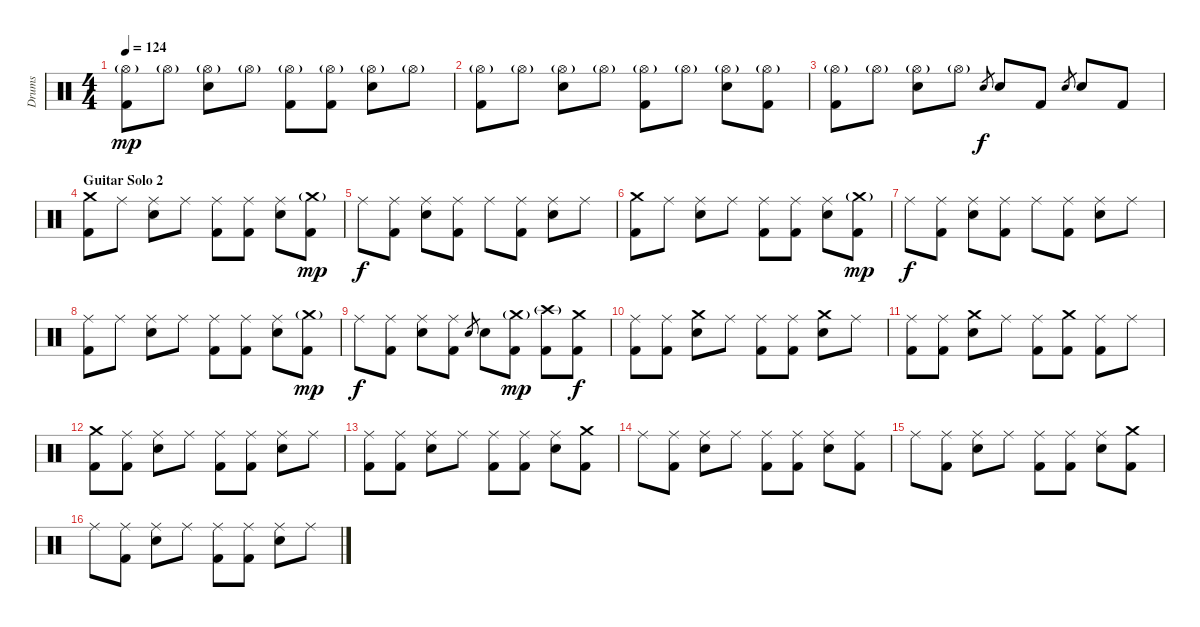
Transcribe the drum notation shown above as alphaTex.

\track ("Drums" "Drums") {instrument percussion}
\staff {score}
\articulation defaults
\ts (4 4)
\tempo 124
\clef neutral
\ks c
("Hi-Hat (open)"{g} "Kick (hit) 2").8{dy mp} "Hi-Hat (open)"{g}.8 ("Hi-Hat (open)"{g} "Snare (hit) 2").8 "Hi-Hat (open)"{g}.8 ("Hi-Hat (open)"{g} "Kick (hit) 2").8 ("Hi-Hat (open)"{g} "Kick (hit) 2").8 ("Hi-Hat (open)"{g} "Snare (hit) 2").8 "Hi-Hat (open)"{g}.8 |
("Hi-Hat (open)"{g} "Kick (hit) 2").8 "Hi-Hat (open)"{g}.8 ("Hi-Hat (open)"{g} "Snare (hit) 2").8 "Hi-Hat (open)"{g}.8 ("Hi-Hat (open)"{g} "Kick (hit) 2").8 "Hi-Hat (open)"{g}.8 ("Hi-Hat (open)"{g} "Snare (hit) 2").8 ("Hi-Hat (open)"{g} "Kick (hit) 2").8 |
("Hi-Hat (open)"{g} "Kick (hit) 2").8 "Hi-Hat (open)"{g}.8 ("Hi-Hat (open)"{g} "Snare (hit) 2").8 "Hi-Hat (open)"{g}.8 "Snare (hit) 2".8{gr dy f} "Snare (hit) 2".8 "Kick (hit) 2".8 "Snare (hit) 2".8{gr} "Snare (hit) 2".8 "Kick (hit) 2".8 |
\section ("" "Guitar Solo 2")
("Crash medium (hit)" "Kick (hit) 2").8 "Ride (middle)".8 ("Ride (middle)" "Snare (hit) 2").8 "Ride (middle)".8 ("Ride (middle)" "Kick (hit) 2").8 ("Ride (middle)" "Kick (hit) 2").8 ("Ride (middle)" "Snare (hit) 2").8 ("Crash medium (hit)"{g} "Kick (hit) 2").8{dy mp} |
"Ride (middle)".8{dy f} ("Ride (middle)" "Kick (hit) 2").8 ("Ride (middle)" "Snare (hit) 2").8 ("Ride (middle)" "Kick (hit) 2").8 "Ride (middle)".8 ("Ride (middle)" "Kick (hit) 2").8 ("Ride (middle)" "Snare (hit) 2").8 "Ride (middle)".8 |
("Crash medium (hit)" "Kick (hit) 2").8 "Ride (middle)".8 ("Ride (middle)" "Snare (hit) 2").8 "Ride (middle)".8 ("Ride (middle)" "Kick (hit) 2").8 ("Ride (middle)" "Kick (hit) 2").8 ("Ride (middle)" "Snare (hit) 2").8 ("Crash medium (hit)"{g} "Kick (hit) 2").8{dy mp} |
"Ride (middle)".8{dy f} ("Ride (middle)" "Kick (hit) 2").8 ("Ride (middle)" "Snare (hit) 2").8 ("Ride (middle)" "Kick (hit) 2").8 "Ride (middle)".8 ("Ride (middle)" "Kick (hit) 2").8 ("Ride (middle)" "Snare (hit) 2").8 "Ride (middle)".8 |
("Ride (middle)" "Kick (hit) 2").8 "Ride (middle)".8 ("Ride (middle)" "Snare (hit) 2").8 "Ride (middle)".8 ("Ride (middle)" "Kick (hit) 2").8 ("Ride (middle)" "Kick (hit) 2").8 ("Ride (middle)" "Snare (hit) 2").8 ("Crash medium (hit)"{g} "Kick (hit) 2").8{dy mp} |
"Ride (middle)".8{dy f} ("Ride (middle)" "Kick (hit) 2").8 ("Ride (middle)" "Snare (hit) 2").8 ("Ride (middle)" "Kick (hit) 2").8 "Snare (hit) 2".8{gr} "Snare (hit) 2".8 ("Crash medium (hit)"{g} "Kick (hit) 2").8{dy mp} ("Crash high (hit)"{g} "Kick (hit) 2").8 ("Crash medium (hit)" "Kick (hit) 2").8{dy f} |
("Ride (middle)" "Kick (hit) 2").8 ("Ride (middle)" "Kick (hit) 2").8 ("Crash medium (hit)" "Snare (hit) 2").8 "Ride (middle)".8 ("Ride (middle)" "Kick (hit) 2").8 ("Ride (middle)" "Kick (hit) 2").8 ("Crash medium (hit)" "Snare (hit) 2").8 "Ride (middle)".8 |
("Ride (middle)" "Kick (hit) 2").8 ("Ride (middle)" "Kick (hit) 2").8 ("Crash medium (hit)" "Snare (hit) 2").8 "Ride (middle)".8 ("Ride (middle)" "Kick (hit) 2").8 ("Crash medium (hit)" "Kick (hit) 2").8 ("Ride (middle)" "Kick (hit) 2").8 "Ride (middle)".8 |
("Crash medium (hit)" "Kick (hit) 2").8 ("Ride (middle)" "Kick (hit) 2").8 ("Ride (middle)" "Snare (hit) 2").8 "Ride (middle)".8 ("Ride (middle)" "Kick (hit) 2").8 ("Ride (middle)" "Kick (hit) 2").8 ("Ride (middle)" "Snare (hit) 2").8 "Ride (middle)".8 |
("Ride (middle)" "Kick (hit) 2").8 ("Ride (middle)" "Kick (hit) 2").8 ("Ride (middle)" "Snare (hit) 2").8 "Ride (middle)".8 ("Ride (middle)" "Kick (hit) 2").8 ("Ride (middle)" "Kick (hit) 2").8 ("Ride (middle)" "Snare (hit) 2").8 ("Crash medium (hit)" "Kick (hit) 2").8 |
"Ride (middle)".8 ("Ride (middle)" "Kick (hit) 2").8 ("Ride (middle)" "Snare (hit) 2").8 "Ride (middle)".8 ("Ride (middle)" "Kick (hit) 2").8 ("Ride (middle)" "Kick (hit) 2").8 ("Ride (middle)" "Snare (hit) 2").8 ("Ride (middle)" "Kick (hit) 2").8 |
"Ride (middle)".8 ("Ride (middle)" "Kick (hit) 2").8 ("Ride (middle)" "Snare (hit) 2").8 "Ride (middle)".8 ("Ride (middle)" "Kick (hit) 2").8 ("Ride (middle)" "Kick (hit) 2").8 ("Ride (middle)" "Snare (hit) 2").8 ("Crash medium (hit)" "Kick (hit) 2").8 |
"Ride (middle)".8 ("Ride (middle)" "Kick (hit) 2").8 ("Ride (middle)" "Snare (hit) 2").8 "Ride (middle)".8 ("Ride (middle)" "Kick (hit) 2").8 ("Ride (middle)" "Kick (hit) 2").8 ("Ride (middle)" "Snare (hit) 2").8 "Ride (middle)".8
